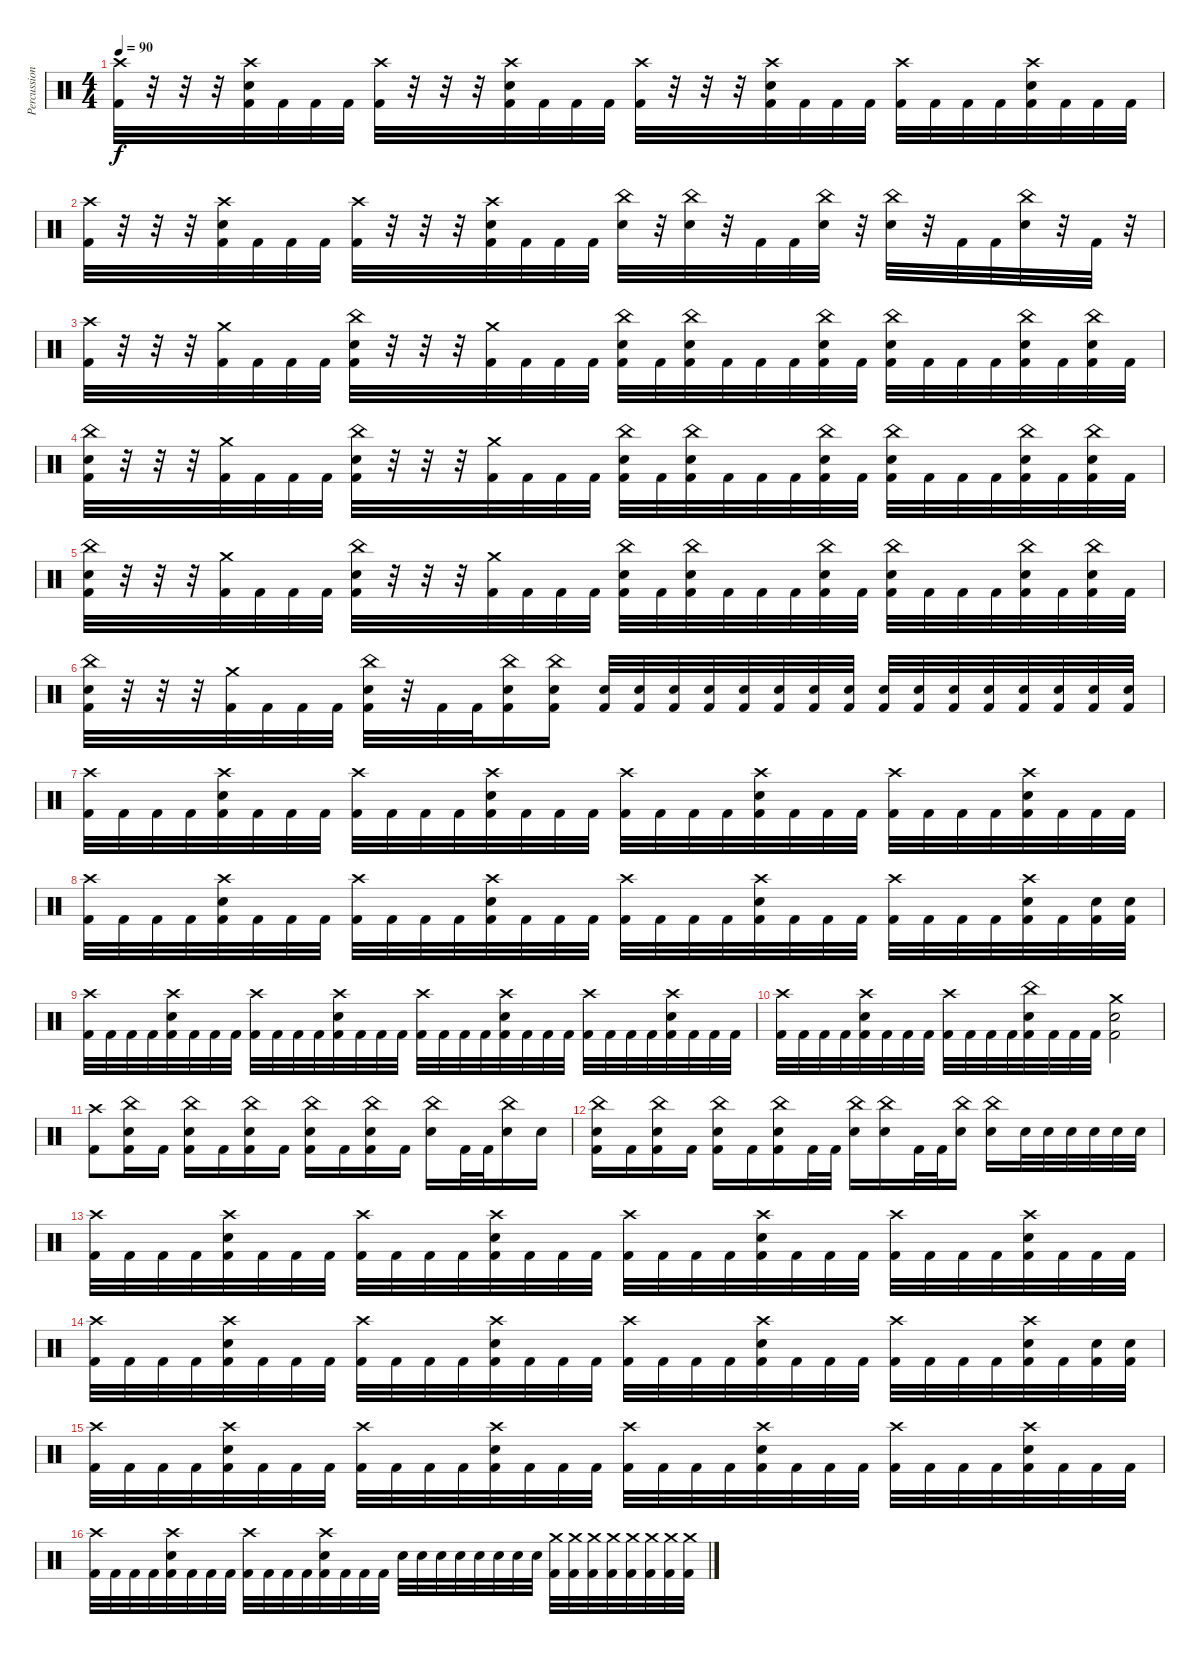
\track ("Percussion" "Percussion") {instrument percussion}
\staff {score}
\articulation defaults
\ts (4 4)
\tempo 90
\clef neutral
\ks c
("Crash high (hit)" "Kick (hit) 2").32{dy f} r.32 r.32 r.32 ("Crash high (hit)" "Electric Snare (hit)" "Kick (hit) 2").32 "Kick (hit) 2".32 "Kick (hit) 2".32 "Kick (hit) 2".32 ("Crash high (hit)" "Kick (hit) 2").32 r.32 r.32 r.32 ("Crash high (hit)" "Electric Snare (hit)" "Kick (hit) 2").32 "Kick (hit) 2".32 "Kick (hit) 2".32 "Kick (hit) 2".32 ("Crash high (hit)" "Kick (hit) 2").32 r.32 r.32 r.32 ("Crash high (hit)" "Electric Snare (hit)" "Kick (hit) 2").32 "Kick (hit) 2".32 "Kick (hit) 2".32 "Kick (hit) 2".32 ("Crash high (hit)" "Kick (hit) 2").32 "Kick (hit) 2".32 "Kick (hit) 2".32 "Kick (hit) 2".32 ("Crash high (hit)" "Electric Snare (hit)" "Kick (hit) 2").32 "Kick (hit) 2".32 "Kick (hit) 2".32 "Kick (hit) 2".32 |
("Crash high (hit)" "Kick (hit) 2").32 r.32 r.32 r.32 ("Crash high (hit)" "Electric Snare (hit)" "Kick (hit) 2").32 "Kick (hit) 2".32 "Kick (hit) 2".32 "Kick (hit) 2".32 ("Crash high (hit)" "Kick (hit) 2").32 r.32 r.32 r.32 ("Crash high (hit)" "Electric Snare (hit)" "Kick (hit) 2").32 "Kick (hit) 2".32 "Kick (hit) 2".32 "Kick (hit) 2".32 ("China (hit)" "Electric Snare (hit)").32 r.32 ("China (hit)" "Electric Snare (hit)").32 r.32 "Kick (hit) 2".32 "Kick (hit) 2".32 ("China (hit)" "Electric Snare (hit)").32 r.32 ("China (hit)" "Electric Snare (hit)").32 r.32 "Kick (hit) 2".32 "Kick (hit) 2".32 ("China (hit)" "Electric Snare (hit)").32 r.32 "Kick (hit) 2".32 r.32 |
("Crash high (hit)" "Kick (hit) 2").32 r.32 r.32 r.32 ("Crash medium (hit)" "Kick (hit) 2").32 "Kick (hit) 2".32 "Kick (hit) 2".32 "Kick (hit) 2".32 ("China (hit)" "Electric Snare (hit)" "Kick (hit) 2").32 r.32 r.32 r.32 ("Crash medium (hit)" "Kick (hit) 2").32 "Kick (hit) 2".32 "Kick (hit) 2".32 "Kick (hit) 2".32 ("China (hit)" "Electric Snare (hit)" "Kick (hit) 2").32 "Kick (hit) 2".32 ("China (hit)" "Electric Snare (hit)" "Kick (hit) 2").32 "Kick (hit) 2".32 "Kick (hit) 2".32 "Kick (hit) 2".32 ("China (hit)" "Electric Snare (hit)" "Kick (hit) 2").32 "Kick (hit) 2".32 ("China (hit)" "Electric Snare (hit)" "Kick (hit) 2").32 "Kick (hit) 2".32 "Kick (hit) 2".32 "Kick (hit) 2".32 ("China (hit)" "Electric Snare (hit)" "Kick (hit) 2").32 "Kick (hit) 2".32 ("China (hit)" "Electric Snare (hit)" "Kick (hit) 2").32 "Kick (hit) 2".32 |
("China (hit)" "Electric Snare (hit)" "Kick (hit) 2").32 r.32 r.32 r.32 ("Crash medium (hit)" "Kick (hit) 2").32 "Kick (hit) 2".32 "Kick (hit) 2".32 "Kick (hit) 2".32 ("China (hit)" "Electric Snare (hit)" "Kick (hit) 2").32 r.32 r.32 r.32 ("Crash medium (hit)" "Kick (hit) 2").32 "Kick (hit) 2".32 "Kick (hit) 2".32 "Kick (hit) 2".32 ("China (hit)" "Electric Snare (hit)" "Kick (hit) 2").32 "Kick (hit) 2".32 ("China (hit)" "Electric Snare (hit)" "Kick (hit) 2").32 "Kick (hit) 2".32 "Kick (hit) 2".32 "Kick (hit) 2".32 ("China (hit)" "Electric Snare (hit)" "Kick (hit) 2").32 "Kick (hit) 2".32 ("China (hit)" "Electric Snare (hit)" "Kick (hit) 2").32 "Kick (hit) 2".32 "Kick (hit) 2".32 "Kick (hit) 2".32 ("China (hit)" "Electric Snare (hit)" "Kick (hit) 2").32 "Kick (hit) 2".32 ("China (hit)" "Electric Snare (hit)" "Kick (hit) 2").32 "Kick (hit) 2".32 |
("China (hit)" "Electric Snare (hit)" "Kick (hit) 2").32 r.32 r.32 r.32 ("Crash medium (hit)" "Kick (hit) 2").32 "Kick (hit) 2".32 "Kick (hit) 2".32 "Kick (hit) 2".32 ("China (hit)" "Electric Snare (hit)" "Kick (hit) 2").32 r.32 r.32 r.32 ("Crash medium (hit)" "Kick (hit) 2").32 "Kick (hit) 2".32 "Kick (hit) 2".32 "Kick (hit) 2".32 ("China (hit)" "Electric Snare (hit)" "Kick (hit) 2").32 "Kick (hit) 2".32 ("China (hit)" "Electric Snare (hit)" "Kick (hit) 2").32 "Kick (hit) 2".32 "Kick (hit) 2".32 "Kick (hit) 2".32 ("China (hit)" "Electric Snare (hit)" "Kick (hit) 2").32 "Kick (hit) 2".32 ("China (hit)" "Electric Snare (hit)" "Kick (hit) 2").32 "Kick (hit) 2".32 "Kick (hit) 2".32 "Kick (hit) 2".32 ("China (hit)" "Electric Snare (hit)" "Kick (hit) 2").32 "Kick (hit) 2".32 ("China (hit)" "Electric Snare (hit)" "Kick (hit) 2").32 "Kick (hit) 2".32 |
("China (hit)" "Electric Snare (hit)" "Kick (hit) 2").32 r.32 r.32 r.32 ("Crash medium (hit)" "Kick (hit) 2").32 "Kick (hit) 2".32 "Kick (hit) 2".32 "Kick (hit) 2".32 ("China (hit)" "Electric Snare (hit)" "Kick (hit) 2").32 r.32 "Kick (hit) 2".32 "Kick (hit) 2".32 ("China (hit)" "Electric Snare (hit)" "Kick (hit) 2").16 ("China (hit)" "Electric Snare (hit)" "Kick (hit) 2").16 ("Electric Snare (hit)" "Kick (hit) 2").32 ("Electric Snare (hit)" "Kick (hit) 2").32 ("Electric Snare (hit)" "Kick (hit) 2").32 ("Electric Snare (hit)" "Kick (hit) 2").32 ("Electric Snare (hit)" "Kick (hit) 2").32 ("Electric Snare (hit)" "Kick (hit) 2").32 ("Electric Snare (hit)" "Kick (hit) 2").32 ("Electric Snare (hit)" "Kick (hit) 2").32 ("Electric Snare (hit)" "Kick (hit) 2").32 ("Electric Snare (hit)" "Kick (hit) 2").32 ("Electric Snare (hit)" "Kick (hit) 2").32 ("Electric Snare (hit)" "Kick (hit) 2").32 ("Electric Snare (hit)" "Kick (hit) 2").32 ("Electric Snare (hit)" "Kick (hit) 2").32 ("Electric Snare (hit)" "Kick (hit) 2").32 ("Electric Snare (hit)" "Kick (hit) 2").32 |
("Crash high (hit)" "Kick (hit) 2").32 "Kick (hit) 2".32 "Kick (hit) 2".32 "Kick (hit) 2".32 ("Crash high (hit)" "Electric Snare (hit)" "Kick (hit) 2").32 "Kick (hit) 2".32 "Kick (hit) 2".32 "Kick (hit) 2".32 ("Crash high (hit)" "Kick (hit) 2").32 "Kick (hit) 2".32 "Kick (hit) 2".32 "Kick (hit) 2".32 ("Crash high (hit)" "Electric Snare (hit)" "Kick (hit) 2").32 "Kick (hit) 2".32 "Kick (hit) 2".32 "Kick (hit) 2".32 ("Crash high (hit)" "Kick (hit) 2").32 "Kick (hit) 2".32 "Kick (hit) 2".32 "Kick (hit) 2".32 ("Crash high (hit)" "Electric Snare (hit)" "Kick (hit) 2").32 "Kick (hit) 2".32 "Kick (hit) 2".32 "Kick (hit) 2".32 ("Crash high (hit)" "Kick (hit) 2").32 "Kick (hit) 2".32 "Kick (hit) 2".32 "Kick (hit) 2".32 ("Crash high (hit)" "Electric Snare (hit)" "Kick (hit) 2").32 "Kick (hit) 2".32 "Kick (hit) 2".32 "Kick (hit) 2".32 |
("Crash high (hit)" "Kick (hit) 2").32 "Kick (hit) 2".32 "Kick (hit) 2".32 "Kick (hit) 2".32 ("Crash high (hit)" "Electric Snare (hit)" "Kick (hit) 2").32 "Kick (hit) 2".32 "Kick (hit) 2".32 "Kick (hit) 2".32 ("Crash high (hit)" "Kick (hit) 2").32 "Kick (hit) 2".32 "Kick (hit) 2".32 "Kick (hit) 2".32 ("Crash high (hit)" "Electric Snare (hit)" "Kick (hit) 2").32 "Kick (hit) 2".32 "Kick (hit) 2".32 "Kick (hit) 2".32 ("Crash high (hit)" "Kick (hit) 2").32 "Kick (hit) 2".32 "Kick (hit) 2".32 "Kick (hit) 2".32 ("Crash high (hit)" "Electric Snare (hit)" "Kick (hit) 2").32 "Kick (hit) 2".32 "Kick (hit) 2".32 "Kick (hit) 2".32 ("Crash high (hit)" "Kick (hit) 2").32 "Kick (hit) 2".32 "Kick (hit) 2".32 "Kick (hit) 2".32 ("Crash high (hit)" "Electric Snare (hit)" "Kick (hit) 2").32 "Kick (hit) 2".32 ("Electric Snare (hit)" "Kick (hit) 2").32 ("Electric Snare (hit)" "Kick (hit) 2").32 |
("Crash high (hit)" "Kick (hit) 2").32 "Kick (hit) 2".32 "Kick (hit) 2".32 "Kick (hit) 2".32 ("Crash high (hit)" "Electric Snare (hit)" "Kick (hit) 2").32 "Kick (hit) 2".32 "Kick (hit) 2".32 "Kick (hit) 2".32 ("Crash high (hit)" "Kick (hit) 2").32 "Kick (hit) 2".32 "Kick (hit) 2".32 "Kick (hit) 2".32 ("Crash high (hit)" "Electric Snare (hit)" "Kick (hit) 2").32 "Kick (hit) 2".32 "Kick (hit) 2".32 "Kick (hit) 2".32 ("Crash high (hit)" "Kick (hit) 2").32 "Kick (hit) 2".32 "Kick (hit) 2".32 "Kick (hit) 2".32 ("Crash high (hit)" "Electric Snare (hit)" "Kick (hit) 2").32 "Kick (hit) 2".32 "Kick (hit) 2".32 "Kick (hit) 2".32 ("Crash high (hit)" "Kick (hit) 2").32 "Kick (hit) 2".32 "Kick (hit) 2".32 "Kick (hit) 2".32 ("Crash high (hit)" "Electric Snare (hit)" "Kick (hit) 2").32 "Kick (hit) 2".32 "Kick (hit) 2".32 "Kick (hit) 2".32 |
("Crash high (hit)" "Kick (hit) 2").32 "Kick (hit) 2".32 "Kick (hit) 2".32 "Kick (hit) 2".32 ("Crash high (hit)" "Electric Snare (hit)" "Kick (hit) 2").32 "Kick (hit) 2".32 "Kick (hit) 2".32 "Kick (hit) 2".32 ("Crash high (hit)" "Kick (hit) 2").32 "Kick (hit) 2".32 "Kick (hit) 2".32 "Kick (hit) 2".32 ("China (hit)" "Electric Snare (hit)" "Kick (hit) 2").32 "Kick (hit) 2".32 "Kick (hit) 2".32 "Kick (hit) 2".32 ("Crash medium (hit)" "Electric Snare (hit)" "Kick (hit) 2").2 |
("Crash high (hit)" "Kick (hit) 2").8 ("China (hit)" "Electric Snare (hit)" "Kick (hit) 2").16 "Kick (hit) 2".16 ("China (hit)" "Electric Snare (hit)" "Kick (hit) 2").16 "Kick (hit) 2".16 ("China (hit)" "Electric Snare (hit)" "Kick (hit) 2").16 "Kick (hit) 2".16 ("China (hit)" "Electric Snare (hit)" "Kick (hit) 2").16 "Kick (hit) 2".16 ("China (hit)" "Electric Snare (hit)" "Kick (hit) 2").16 "Kick (hit) 2".16 ("China (hit)" "Electric Snare (hit)").16 "Kick (hit) 2".32 "Kick (hit) 2".32 ("China (hit)" "Electric Snare (hit)").16 "Electric Snare (hit)".16 |
("China (hit)" "Electric Snare (hit)" "Kick (hit) 2").16 "Kick (hit) 2".16 ("China (hit)" "Electric Snare (hit)" "Kick (hit) 2").16 "Kick (hit) 2".16 ("China (hit)" "Electric Snare (hit)" "Kick (hit) 2").16 "Kick (hit) 2".16 ("China (hit)" "Electric Snare (hit)" "Kick (hit) 2").16 "Kick (hit) 2".32 "Kick (hit) 2".32 ("China (hit)" "Electric Snare (hit)").16 ("China (hit)" "Electric Snare (hit)").16 "Kick (hit) 2".32 "Kick (hit) 2".32 ("China (hit)" "Electric Snare (hit)").16 ("China (hit)" "Electric Snare (hit)").16 "Electric Snare (hit)".32 "Electric Snare (hit)".32 "Electric Snare (hit)".32 "Electric Snare (hit)".32 "Electric Snare (hit)".32 "Electric Snare (hit)".32 |
("Crash high (hit)" "Kick (hit) 2").32 "Kick (hit) 2".32 "Kick (hit) 2".32 "Kick (hit) 2".32 ("Crash high (hit)" "Electric Snare (hit)" "Kick (hit) 2").32 "Kick (hit) 2".32 "Kick (hit) 2".32 "Kick (hit) 2".32 ("Crash high (hit)" "Kick (hit) 2").32 "Kick (hit) 2".32 "Kick (hit) 2".32 "Kick (hit) 2".32 ("Crash high (hit)" "Electric Snare (hit)" "Kick (hit) 2").32 "Kick (hit) 2".32 "Kick (hit) 2".32 "Kick (hit) 2".32 ("Crash high (hit)" "Kick (hit) 2").32 "Kick (hit) 2".32 "Kick (hit) 2".32 "Kick (hit) 2".32 ("Crash high (hit)" "Electric Snare (hit)" "Kick (hit) 2").32 "Kick (hit) 2".32 "Kick (hit) 2".32 "Kick (hit) 2".32 ("Crash high (hit)" "Kick (hit) 2").32 "Kick (hit) 2".32 "Kick (hit) 2".32 "Kick (hit) 2".32 ("Crash high (hit)" "Electric Snare (hit)" "Kick (hit) 2").32 "Kick (hit) 2".32 "Kick (hit) 2".32 "Kick (hit) 2".32 |
("Crash high (hit)" "Kick (hit) 2").32 "Kick (hit) 2".32 "Kick (hit) 2".32 "Kick (hit) 2".32 ("Crash high (hit)" "Electric Snare (hit)" "Kick (hit) 2").32 "Kick (hit) 2".32 "Kick (hit) 2".32 "Kick (hit) 2".32 ("Crash high (hit)" "Kick (hit) 2").32 "Kick (hit) 2".32 "Kick (hit) 2".32 "Kick (hit) 2".32 ("Crash high (hit)" "Electric Snare (hit)" "Kick (hit) 2").32 "Kick (hit) 2".32 "Kick (hit) 2".32 "Kick (hit) 2".32 ("Crash high (hit)" "Kick (hit) 2").32 "Kick (hit) 2".32 "Kick (hit) 2".32 "Kick (hit) 2".32 ("Crash high (hit)" "Electric Snare (hit)" "Kick (hit) 2").32 "Kick (hit) 2".32 "Kick (hit) 2".32 "Kick (hit) 2".32 ("Crash high (hit)" "Kick (hit) 2").32 "Kick (hit) 2".32 "Kick (hit) 2".32 "Kick (hit) 2".32 ("Crash high (hit)" "Electric Snare (hit)" "Kick (hit) 2").32 "Kick (hit) 2".32 ("Electric Snare (hit)" "Kick (hit) 2").32 ("Electric Snare (hit)" "Kick (hit) 2").32 |
("Crash high (hit)" "Kick (hit) 2").32 "Kick (hit) 2".32 "Kick (hit) 2".32 "Kick (hit) 2".32 ("Crash high (hit)" "Electric Snare (hit)" "Kick (hit) 2").32 "Kick (hit) 2".32 "Kick (hit) 2".32 "Kick (hit) 2".32 ("Crash high (hit)" "Kick (hit) 2").32 "Kick (hit) 2".32 "Kick (hit) 2".32 "Kick (hit) 2".32 ("Crash high (hit)" "Electric Snare (hit)" "Kick (hit) 2").32 "Kick (hit) 2".32 "Kick (hit) 2".32 "Kick (hit) 2".32 ("Crash high (hit)" "Kick (hit) 2").32 "Kick (hit) 2".32 "Kick (hit) 2".32 "Kick (hit) 2".32 ("Crash high (hit)" "Electric Snare (hit)" "Kick (hit) 2").32 "Kick (hit) 2".32 "Kick (hit) 2".32 "Kick (hit) 2".32 ("Crash high (hit)" "Kick (hit) 2").32 "Kick (hit) 2".32 "Kick (hit) 2".32 "Kick (hit) 2".32 ("Crash high (hit)" "Electric Snare (hit)" "Kick (hit) 2").32 "Kick (hit) 2".32 "Kick (hit) 2".32 "Kick (hit) 2".32 |
("Crash high (hit)" "Kick (hit) 2").32 "Kick (hit) 2".32 "Kick (hit) 2".32 "Kick (hit) 2".32 ("Crash high (hit)" "Electric Snare (hit)" "Kick (hit) 2").32 "Kick (hit) 2".32 "Kick (hit) 2".32 "Kick (hit) 2".32 ("Crash high (hit)" "Kick (hit) 2").32 "Kick (hit) 2".32 "Kick (hit) 2".32 "Kick (hit) 2".32 ("Crash high (hit)" "Electric Snare (hit)" "Kick (hit) 2").32 "Kick (hit) 2".32 "Kick (hit) 2".32 "Kick (hit) 2".32 "Electric Snare (hit)".32 "Electric Snare (hit)".32 "Electric Snare (hit)".32 "Electric Snare (hit)".32 "Electric Snare (hit)".32 "Electric Snare (hit)".32 "Electric Snare (hit)".32 "Electric Snare (hit)".32 ("Crash medium (hit)" "Kick (hit) 2").32 ("Crash medium (hit)" "Kick (hit) 2").32 ("Crash medium (hit)" "Kick (hit) 2").32 ("Crash medium (hit)" "Kick (hit) 2").32 ("Crash medium (hit)" "Kick (hit) 2").32 ("Crash medium (hit)" "Kick (hit) 2").32 ("Crash medium (hit)" "Kick (hit) 2").32 ("Crash medium (hit)" "Kick (hit) 2").32
